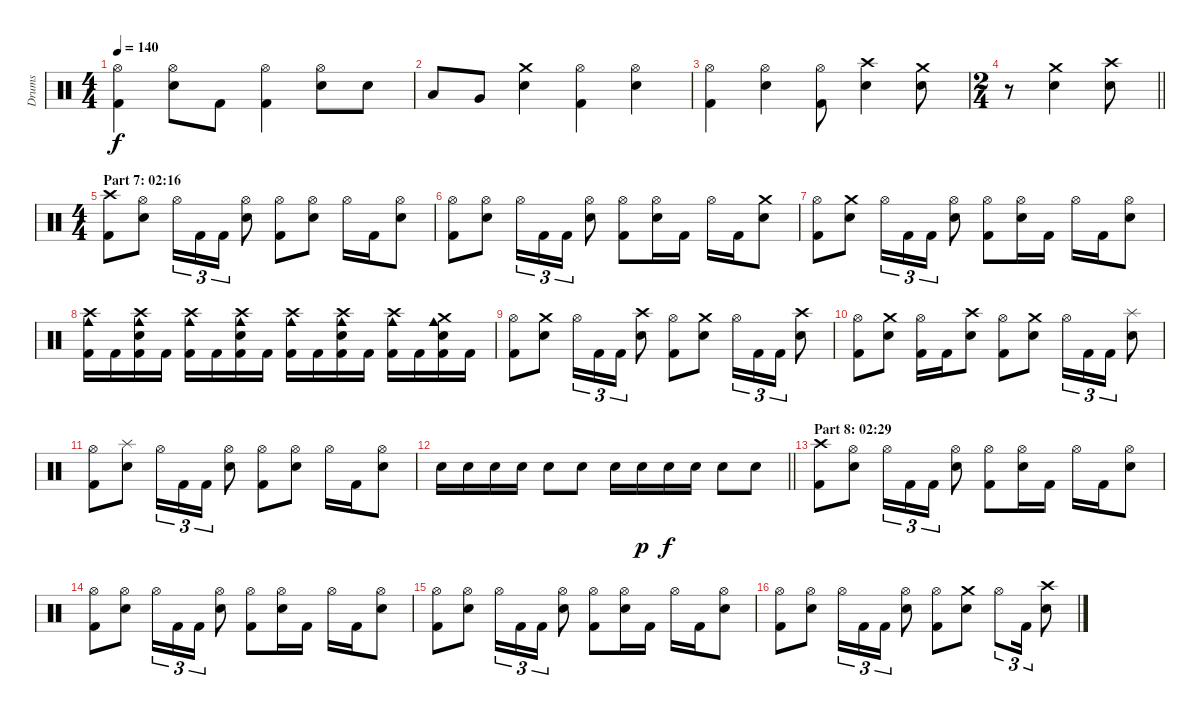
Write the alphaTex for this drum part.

\track ("Drums" "Drums") {instrument percussion}
\staff {score}
\articulation defaults
\ts (4 4)
\tempo 140
\clef neutral
\ks c
("Hi-Hat (open)" "Kick (hit) 2").4{dy f} ("Hi-Hat (open)" "Electric Snare (hit)").8 "Kick (hit) 2".8 ("Hi-Hat (open)" "Kick (hit) 2").4 ("Hi-Hat (open)" "Electric Snare (hit)").8 "Electric Snare (hit)".8 |
"Low Tom (hit)".8 "Very Low Tom (hit)".8 ("Crash medium (hit)" "Electric Snare (hit)").4 ("Hi-Hat (open)" "Kick (hit) 2").4 ("Hi-Hat (open)" "Electric Snare (hit)").4 |
("Hi-Hat (open)" "Kick (hit) 2").4 ("Hi-Hat (open)" "Electric Snare (hit)").4 ("Hi-Hat (open)" "Kick (hit) 2").8 ("Crash high (hit)" "Electric Snare (hit)").4 ("Crash medium (hit)" "Electric Snare (hit)").8 |
\ts (2 4)
\barLineRight lightlight
r.8 ("Crash medium (hit)" "Electric Snare (hit)").4 ("Crash high (hit)" "Electric Snare (hit)").8 |
\ts (4 4)
\section ("" "Part 7: 02:16")
("Crash high (hit)" "Kick (hit) 2").8 ("Hi-Hat (open)" "Electric Snare (hit)").8 "Hi-Hat (open)".16{tu (3 2)} "Kick (hit) 2".16{tu (3 2)} "Kick (hit) 2".16{tu (3 2)} ("Hi-Hat (open)" "Electric Snare (hit)").8 ("Hi-Hat (open)" "Kick (hit) 2").8 ("Hi-Hat (open)" "Electric Snare (hit)").8 "Hi-Hat (open)".16 "Kick (hit) 2".16 ("Hi-Hat (open)" "Electric Snare (hit)").8 |
("Hi-Hat (open)" "Kick (hit) 2").8 ("Hi-Hat (open)" "Electric Snare (hit)").8 "Hi-Hat (open)".16{tu (3 2)} "Kick (hit) 2".16{tu (3 2)} "Kick (hit) 2".16{tu (3 2)} ("Hi-Hat (open)" "Electric Snare (hit)").8 ("Hi-Hat (open)" "Kick (hit) 2").8 ("Hi-Hat (open)" "Electric Snare (hit)").16 "Kick (hit) 2".16 "Hi-Hat (open)".16 "Kick (hit) 2".16 ("Crash medium (hit)" "Electric Snare (hit)").8 |
("Hi-Hat (open)" "Kick (hit) 2").8 ("Crash medium (hit)" "Electric Snare (hit)").8 "Hi-Hat (open)".16{tu (3 2)} "Kick (hit) 2".16{tu (3 2)} "Kick (hit) 2".16{tu (3 2)} ("Hi-Hat (open)" "Electric Snare (hit)").8 ("Hi-Hat (open)" "Kick (hit) 2").8 ("Hi-Hat (open)" "Electric Snare (hit)").16 "Kick (hit) 2".16 "Hi-Hat (open)".16 "Kick (hit) 2".16 ("Hi-Hat (open)" "Electric Snare (hit)").8 |
("Crash high (hit)" "Cowbell medium (hit)" "Kick (hit) 2").16 "Kick (hit) 2".16 ("Crash high (hit)" "Cowbell medium (hit)" "Electric Snare (hit)" "Kick (hit) 2").16 "Kick (hit) 2".16 ("Crash high (hit)" "Cowbell medium (hit)" "Kick (hit) 2").16 "Kick (hit) 2".16 ("Crash high (hit)" "Cowbell medium (hit)" "Electric Snare (hit)" "Kick (hit) 2").16 "Kick (hit) 2".16 ("Crash high (hit)" "Cowbell medium (hit)" "Kick (hit) 2").16 "Kick (hit) 2".16 ("Crash high (hit)" "Cowbell medium (hit)" "Electric Snare (hit)" "Kick (hit) 2").16 "Kick (hit) 2".16 ("Crash high (hit)" "Cowbell medium (hit)" "Kick (hit) 2").16 "Kick (hit) 2".16 ("Crash medium (hit)" "Cowbell medium (hit)" "Electric Snare (hit)" "Kick (hit) 2").16 "Kick (hit) 2".16 |
("Hi-Hat (open)" "Kick (hit) 2").8 ("Crash medium (hit)" "Electric Snare (hit)").8 "Hi-Hat (open)".16{tu (3 2)} "Kick (hit) 2".16{tu (3 2)} "Kick (hit) 2".16{tu (3 2)} ("Crash high (hit)" "Electric Snare (hit)").8 ("Hi-Hat (open)" "Kick (hit) 2").8 ("Crash medium (hit)" "Electric Snare (hit)").8 "Hi-Hat (open)".16{tu (3 2)} "Kick (hit) 2".16{tu (3 2)} "Kick (hit) 2".16{tu (3 2)} ("Crash high (hit)" "Electric Snare (hit)").8 |
("Hi-Hat (open)" "Kick (hit) 2").8 ("Crash medium (hit)" "Electric Snare (hit)").8 ("Hi-Hat (open)" "Kick (hit) 2").16 "Kick (hit) 2".16 ("Crash high (hit)" "Electric Snare (hit)").8 ("Hi-Hat (open)" "Kick (hit) 2").8 ("Crash medium (hit)" "Electric Snare (hit)").8 "Hi-Hat (open)".16{tu (3 2)} "Kick (hit) 2".16{tu (3 2)} "Kick (hit) 2".16{tu (3 2)} ("Splash (hit)" "Electric Snare (hit)").8 |
("Hi-Hat (open)" "Kick (hit) 2").8 ("Splash (hit)" "Electric Snare (hit)").8 "Hi-Hat (open)".16{tu (3 2)} "Kick (hit) 2".16{tu (3 2)} "Kick (hit) 2".16{tu (3 2)} ("Hi-Hat (open)" "Electric Snare (hit)").8 ("Hi-Hat (open)" "Kick (hit) 2").8 ("Hi-Hat (open)" "Electric Snare (hit)").8 "Hi-Hat (open)".16 "Kick (hit) 2".16 ("Hi-Hat (open)" "Electric Snare (hit)").8 |
\barLineRight lightlight "Electric Snare (hit)".16 "Electric Snare (hit)".16 "Electric Snare (hit)".16 "Electric Snare (hit)".16 "Electric Snare (hit)".8 "Electric Snare (hit)".8 "Electric Snare (hit)".16 "Electric Snare (hit)".16{dy p} "Electric Snare (hit)".16{dy f} "Electric Snare (hit)".16 "Electric Snare (hit)".8 "Electric Snare (hit)".8
|
\section ("" "Part 8: 02:29")
("Crash high (hit)" "Kick (hit) 2").8 ("Hi-Hat (open)" "Electric Snare (hit)").8 "Hi-Hat (open)".16{tu (3 2)} "Kick (hit) 2".16{tu (3 2)} "Kick (hit) 2".16{tu (3 2)} ("Hi-Hat (open)" "Electric Snare (hit)").8 ("Hi-Hat (open)" "Kick (hit) 2").8 ("Hi-Hat (open)" "Electric Snare (hit)").16 "Kick (hit) 2".16 "Hi-Hat (open)".16 "Kick (hit) 2".16 ("Hi-Hat (open)" "Electric Snare (hit)").8 |
("Hi-Hat (open)" "Kick (hit) 2").8 ("Hi-Hat (open)" "Electric Snare (hit)").8 "Hi-Hat (open)".16{tu (3 2)} "Kick (hit) 2".16{tu (3 2)} "Kick (hit) 2".16{tu (3 2)} ("Hi-Hat (open)" "Electric Snare (hit)").8 ("Hi-Hat (open)" "Kick (hit) 2").8 ("Hi-Hat (open)" "Electric Snare (hit)").16 "Kick (hit) 2".16 "Hi-Hat (open)".16 "Kick (hit) 2".16 ("Hi-Hat (open)" "Electric Snare (hit)").8 |
("Hi-Hat (open)" "Kick (hit) 2").8 ("Hi-Hat (open)" "Electric Snare (hit)").8 "Hi-Hat (open)".16{tu (3 2)} "Kick (hit) 2".16{tu (3 2)} "Kick (hit) 2".16{tu (3 2)} ("Hi-Hat (open)" "Electric Snare (hit)").8 ("Hi-Hat (open)" "Kick (hit) 2").8 ("Hi-Hat (open)" "Electric Snare (hit)").16 "Kick (hit) 2".16 "Hi-Hat (open)".16 "Kick (hit) 2".16 ("Hi-Hat (open)" "Electric Snare (hit)").8 |
("Hi-Hat (open)" "Kick (hit) 2").8 ("Hi-Hat (open)" "Electric Snare (hit)").8 "Hi-Hat (open)".16{tu (3 2)} "Kick (hit) 2".16{tu (3 2)} "Kick (hit) 2".16{tu (3 2)} ("Hi-Hat (open)" "Electric Snare (hit)").8 ("Hi-Hat (open)" "Kick (hit) 2").8 ("Crash medium (hit)" "Electric Snare (hit)").8 "Hi-Hat (open)".8{tu (3 2)} "Kick (hit) 2".16{tu (3 2)} ("Crash high (hit)" "Electric Snare (hit)").8
